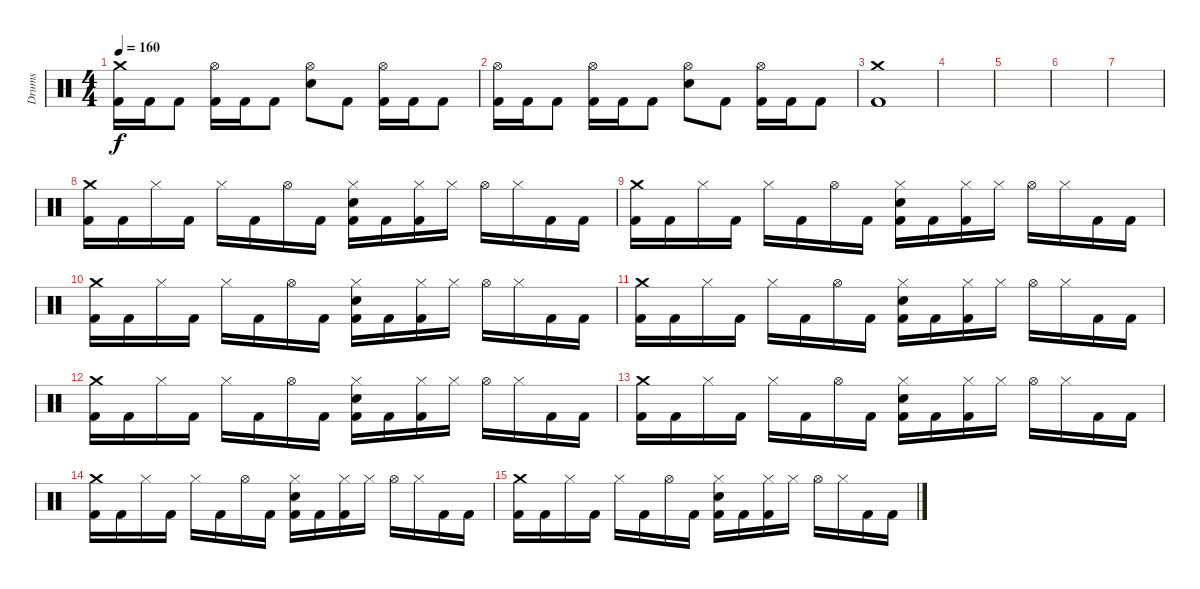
\track ("Drums" "Drums") {instrument percussion}
\staff {score}
\articulation defaults
\ts (4 4)
\tempo 160
\clef neutral
\ks c
("Crash medium (hit)" "Kick (hit) 2").16{dy f} "Kick (hit) 2".16 "Kick (hit) 2".8 ("Hi-Hat (open)" "Kick (hit) 2").16 "Kick (hit) 2".16 "Kick (hit) 2".8 ("Hi-Hat (open)" "Snare (hit) 2").8 "Kick (hit) 2".8 ("Hi-Hat (open)" "Kick (hit) 2").16 "Kick (hit) 2".16 "Kick (hit) 2".8 |
("Hi-Hat (open)" "Kick (hit) 2").16 "Kick (hit) 2".16 "Kick (hit) 2".8 ("Hi-Hat (open)" "Kick (hit) 2").16 "Kick (hit) 2".16 "Kick (hit) 2".8 ("Hi-Hat (open)" "Snare (hit) 2").8 "Kick (hit) 2".8 ("Hi-Hat (open)" "Kick (hit) 2").16 "Kick (hit) 2".16 "Kick (hit) 2".8 |
("Crash medium (hit)" "Kick (hit) 2").1 |
|
|
|
|
("Crash medium (hit)" "Kick (hit) 2").16 "Kick (hit) 2".16 "Hi-Hat (closed)".16 "Kick (hit) 2".16 "Hi-Hat (closed)".16 "Kick (hit) 2".16 "Hi-Hat (open)".16 "Kick (hit) 2".16 ("Hi-Hat (closed)" "Snare (hit) 2" "Kick (hit) 2").16 "Kick (hit) 2".16 ("Hi-Hat (closed)" "Kick (hit) 2").16 "Hi-Hat (closed)".16 "Hi-Hat (open)".16 "Hi-Hat (closed)".16 "Kick (hit) 2".16 "Kick (hit) 2".16 |
("Crash medium (hit)" "Kick (hit) 2").16 "Kick (hit) 2".16 "Hi-Hat (closed)".16 "Kick (hit) 2".16 "Hi-Hat (closed)".16 "Kick (hit) 2".16 "Hi-Hat (open)".16 "Kick (hit) 2".16 ("Hi-Hat (closed)" "Snare (hit) 2" "Kick (hit) 2").16 "Kick (hit) 2".16 ("Hi-Hat (closed)" "Kick (hit) 2").16 "Hi-Hat (closed)".16 "Hi-Hat (open)".16 "Hi-Hat (closed)".16 "Kick (hit) 2".16 "Kick (hit) 2".16 |
("Crash medium (hit)" "Kick (hit) 2").16 "Kick (hit) 2".16 "Hi-Hat (closed)".16 "Kick (hit) 2".16 "Hi-Hat (closed)".16 "Kick (hit) 2".16 "Hi-Hat (open)".16 "Kick (hit) 2".16 ("Hi-Hat (closed)" "Snare (hit) 2" "Kick (hit) 2").16 "Kick (hit) 2".16 ("Hi-Hat (closed)" "Kick (hit) 2").16 "Hi-Hat (closed)".16 "Hi-Hat (open)".16 "Hi-Hat (closed)".16 "Kick (hit) 2".16 "Kick (hit) 2".16 |
("Crash medium (hit)" "Kick (hit) 2").16 "Kick (hit) 2".16 "Hi-Hat (closed)".16 "Kick (hit) 2".16 "Hi-Hat (closed)".16 "Kick (hit) 2".16 "Hi-Hat (open)".16 "Kick (hit) 2".16 ("Hi-Hat (closed)" "Snare (hit) 2" "Kick (hit) 2").16 "Kick (hit) 2".16 ("Hi-Hat (closed)" "Kick (hit) 2").16 "Hi-Hat (closed)".16 "Hi-Hat (open)".16 "Hi-Hat (closed)".16 "Kick (hit) 2".16 "Kick (hit) 2".16 |
("Crash medium (hit)" "Kick (hit) 2").16 "Kick (hit) 2".16 "Hi-Hat (closed)".16 "Kick (hit) 2".16 "Hi-Hat (closed)".16 "Kick (hit) 2".16 "Hi-Hat (open)".16 "Kick (hit) 2".16 ("Hi-Hat (closed)" "Snare (hit) 2" "Kick (hit) 2").16 "Kick (hit) 2".16 ("Hi-Hat (closed)" "Kick (hit) 2").16 "Hi-Hat (closed)".16 "Hi-Hat (open)".16 "Hi-Hat (closed)".16 "Kick (hit) 2".16 "Kick (hit) 2".16 |
("Crash medium (hit)" "Kick (hit) 2").16 "Kick (hit) 2".16 "Hi-Hat (closed)".16 "Kick (hit) 2".16 "Hi-Hat (closed)".16 "Kick (hit) 2".16 "Hi-Hat (open)".16 "Kick (hit) 2".16 ("Hi-Hat (closed)" "Snare (hit) 2" "Kick (hit) 2").16 "Kick (hit) 2".16 ("Hi-Hat (closed)" "Kick (hit) 2").16 "Hi-Hat (closed)".16 "Hi-Hat (open)".16 "Hi-Hat (closed)".16 "Kick (hit) 2".16 "Kick (hit) 2".16 |
("Crash medium (hit)" "Kick (hit) 2").16 "Kick (hit) 2".16 "Hi-Hat (closed)".16 "Kick (hit) 2".16 "Hi-Hat (closed)".16 "Kick (hit) 2".16 "Hi-Hat (open)".16 "Kick (hit) 2".16 ("Hi-Hat (closed)" "Snare (hit) 2" "Kick (hit) 2").16 "Kick (hit) 2".16 ("Hi-Hat (closed)" "Kick (hit) 2").16 "Hi-Hat (closed)".16 "Hi-Hat (open)".16 "Hi-Hat (closed)".16 "Kick (hit) 2".16 "Kick (hit) 2".16 |
("Crash medium (hit)" "Kick (hit) 2").16 "Kick (hit) 2".16 "Hi-Hat (closed)".16 "Kick (hit) 2".16 "Hi-Hat (closed)".16 "Kick (hit) 2".16 "Hi-Hat (open)".16 "Kick (hit) 2".16 ("Hi-Hat (closed)" "Snare (hit) 2" "Kick (hit) 2").16 "Kick (hit) 2".16 ("Hi-Hat (closed)" "Kick (hit) 2").16 "Hi-Hat (closed)".16 "Hi-Hat (open)".16 "Hi-Hat (closed)".16 "Kick (hit) 2".16 "Kick (hit) 2".16
